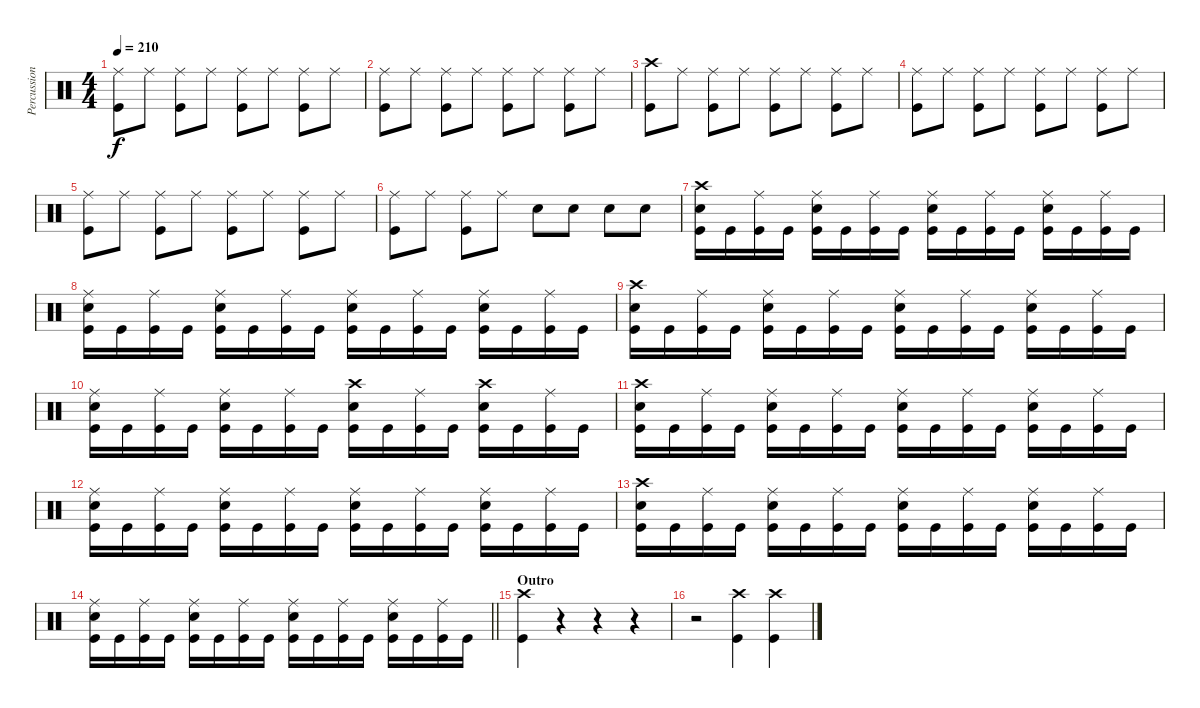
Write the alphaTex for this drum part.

\track ("Percussion" "Percussion") {instrument percussion}
\staff {score}
\articulation defaults
\ts (4 4)
\tempo 210
\clef neutral
\ks c
("Ride (middle)" "Kick (hit)").8{dy f} "Ride (middle)".8 ("Ride (middle)" "Kick (hit)").8 "Ride (middle)".8 ("Ride (middle)" "Kick (hit)").8 "Ride (middle)".8 ("Ride (middle)" "Kick (hit)").8 "Ride (middle)".8 |
("Ride (middle)" "Kick (hit)").8 "Ride (middle)".8 ("Ride (middle)" "Kick (hit)").8 "Ride (middle)".8 ("Ride (middle)" "Kick (hit)").8 "Ride (middle)".8 ("Ride (middle)" "Kick (hit)").8 "Ride (middle)".8 |
("Crash high (hit)" "Kick (hit)").8 "Ride (middle)".8 ("Ride (middle)" "Kick (hit)").8 "Ride (middle)".8 ("Ride (middle)" "Kick (hit)").8 "Ride (middle)".8 ("Ride (middle)" "Kick (hit)").8 "Ride (middle)".8 |
("Ride (middle)" "Kick (hit)").8 "Ride (middle)".8 ("Ride (middle)" "Kick (hit)").8 "Ride (middle)".8 ("Ride (middle)" "Kick (hit)").8 "Ride (middle)".8 ("Ride (middle)" "Kick (hit)").8 "Ride (middle)".8 |
("Ride (middle)" "Kick (hit)").8 "Ride (middle)".8 ("Ride (middle)" "Kick (hit)").8 "Ride (middle)".8 ("Ride (middle)" "Kick (hit)").8 "Ride (middle)".8 ("Ride (middle)" "Kick (hit)").8 "Ride (middle)".8 |
("Ride (middle)" "Kick (hit)").8 "Ride (middle)".8 ("Ride (middle)" "Kick (hit)").8 "Ride (middle)".8 "Snare (hit) 2".8 "Snare (hit) 2".8 "Snare (hit) 2".8 "Snare (hit) 2".8 |
("Crash high (hit)" "Snare (hit) 2" "Kick (hit)").16 "Kick (hit)".16 ("Ride (middle)" "Kick (hit)").16 "Kick (hit)".16 ("Ride (middle)" "Snare (hit) 2" "Kick (hit)").16 "Kick (hit)".16 ("Ride (middle)" "Kick (hit)").16 "Kick (hit)".16 ("Ride (middle)" "Snare (hit) 2" "Kick (hit)").16 "Kick (hit)".16 ("Ride (middle)" "Kick (hit)").16 "Kick (hit)".16 ("Ride (middle)" "Snare (hit) 2" "Kick (hit)").16 "Kick (hit)".16 ("Ride (middle)" "Kick (hit)").16 "Kick (hit)".16 |
("Ride (middle)" "Snare (hit) 2" "Kick (hit)").16 "Kick (hit)".16 ("Ride (middle)" "Kick (hit)").16 "Kick (hit)".16 ("Ride (middle)" "Snare (hit) 2" "Kick (hit)").16 "Kick (hit)".16 ("Ride (middle)" "Kick (hit)").16 "Kick (hit)".16 ("Ride (middle)" "Snare (hit) 2" "Kick (hit)").16 "Kick (hit)".16 ("Ride (middle)" "Kick (hit)").16 "Kick (hit)".16 ("Ride (middle)" "Snare (hit) 2" "Kick (hit)").16 "Kick (hit)".16 ("Ride (middle)" "Kick (hit)").16 "Kick (hit)".16 |
("Crash high (hit)" "Snare (hit) 2" "Kick (hit)").16 "Kick (hit)".16 ("Ride (middle)" "Kick (hit)").16 "Kick (hit)".16 ("Ride (middle)" "Snare (hit) 2" "Kick (hit)").16 "Kick (hit)".16 ("Ride (middle)" "Kick (hit)").16 "Kick (hit)".16 ("Ride (middle)" "Snare (hit) 2" "Kick (hit)").16 "Kick (hit)".16 ("Ride (middle)" "Kick (hit)").16 "Kick (hit)".16 ("Ride (middle)" "Snare (hit) 2" "Kick (hit)").16 "Kick (hit)".16 ("Ride (middle)" "Kick (hit)").16 "Kick (hit)".16 |
("Ride (middle)" "Snare (hit) 2" "Kick (hit)").16 "Kick (hit)".16 ("Ride (middle)" "Kick (hit)").16 "Kick (hit)".16 ("Ride (middle)" "Snare (hit) 2" "Kick (hit)").16 "Kick (hit)".16 ("Ride (middle)" "Kick (hit)").16 "Kick (hit)".16 ("Crash high (hit)" "Snare (hit) 2" "Kick (hit)").16 "Kick (hit)".16 ("Ride (middle)" "Kick (hit)").16 "Kick (hit)".16 ("Crash high (hit)" "Snare (hit) 2" "Kick (hit)").16 "Kick (hit)".16 ("Ride (middle)" "Kick (hit)").16 "Kick (hit)".16 |
("Crash high (hit)" "Snare (hit) 2" "Kick (hit)").16 "Kick (hit)".16 ("Ride (middle)" "Kick (hit)").16 "Kick (hit)".16 ("Ride (middle)" "Snare (hit) 2" "Kick (hit)").16 "Kick (hit)".16 ("Ride (middle)" "Kick (hit)").16 "Kick (hit)".16 ("Ride (middle)" "Snare (hit) 2" "Kick (hit)").16 "Kick (hit)".16 ("Ride (middle)" "Kick (hit)").16 "Kick (hit)".16 ("Ride (middle)" "Snare (hit) 2" "Kick (hit)").16 "Kick (hit)".16 ("Ride (middle)" "Kick (hit)").16 "Kick (hit)".16 |
("Ride (middle)" "Snare (hit) 2" "Kick (hit)").16 "Kick (hit)".16 ("Ride (middle)" "Kick (hit)").16 "Kick (hit)".16 ("Ride (middle)" "Snare (hit) 2" "Kick (hit)").16 "Kick (hit)".16 ("Ride (middle)" "Kick (hit)").16 "Kick (hit)".16 ("Ride (middle)" "Snare (hit) 2" "Kick (hit)").16 "Kick (hit)".16 ("Ride (middle)" "Kick (hit)").16 "Kick (hit)".16 ("Ride (middle)" "Snare (hit) 2" "Kick (hit)").16 "Kick (hit)".16 ("Ride (middle)" "Kick (hit)").16 "Kick (hit)".16 |
("Crash high (hit)" "Snare (hit) 2" "Kick (hit)").16 "Kick (hit)".16 ("Ride (middle)" "Kick (hit)").16 "Kick (hit)".16 ("Ride (middle)" "Snare (hit) 2" "Kick (hit)").16 "Kick (hit)".16 ("Ride (middle)" "Kick (hit)").16 "Kick (hit)".16 ("Ride (middle)" "Snare (hit) 2" "Kick (hit)").16 "Kick (hit)".16 ("Ride (middle)" "Kick (hit)").16 "Kick (hit)".16 ("Ride (middle)" "Snare (hit) 2" "Kick (hit)").16 "Kick (hit)".16 ("Ride (middle)" "Kick (hit)").16 "Kick (hit)".16 |
\barLineRight lightlight
("Ride (middle)" "Snare (hit) 2" "Kick (hit)").16 "Kick (hit)".16 ("Ride (middle)" "Kick (hit)").16 "Kick (hit)".16 ("Ride (middle)" "Snare (hit) 2" "Kick (hit)").16 "Kick (hit)".16 ("Ride (middle)" "Kick (hit)").16 "Kick (hit)".16 ("Ride (middle)" "Snare (hit) 2" "Kick (hit)").16 "Kick (hit)".16 ("Ride (middle)" "Kick (hit)").16 "Kick (hit)".16 ("Ride (middle)" "Snare (hit) 2" "Kick (hit)").16 "Kick (hit)".16 ("Ride (middle)" "Kick (hit)").16 "Kick (hit)".16 |
\section ("" "Outro")
("Crash high (hit)" "Kick (hit)").4 r.4 r.4 r.4 |
r.2 ("Crash high (hit)" "Kick (hit)").4 ("Crash high (hit)" "Kick (hit)").4
